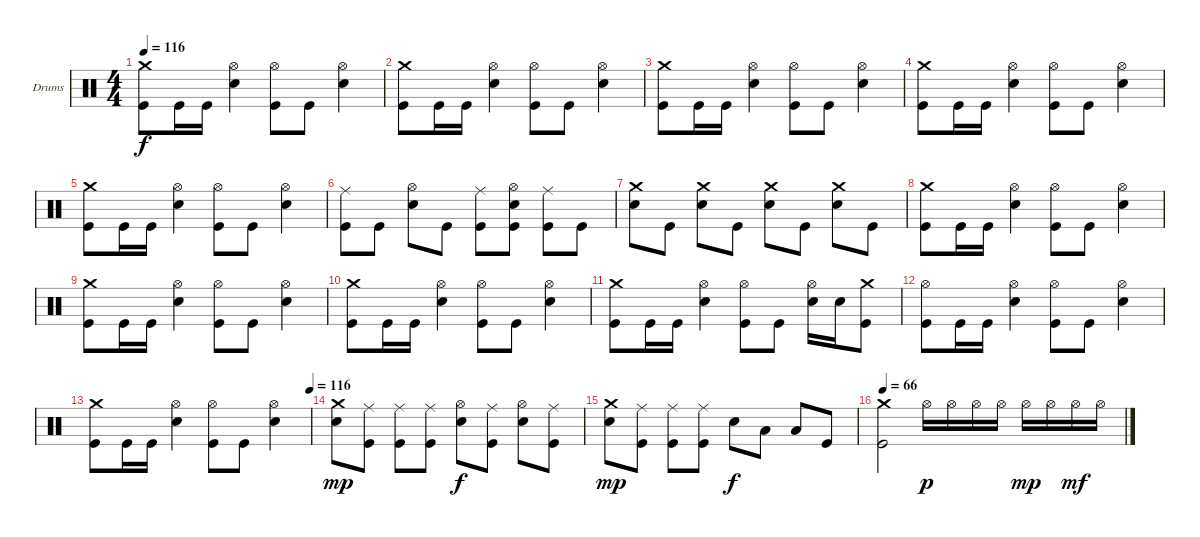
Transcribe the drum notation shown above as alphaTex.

\defaultSystemsLayout 4
\bracketExtendMode nobrackets
\firstSystemTrackNameOrientation horizontal
\otherSystemsTrackNameOrientation horizontal
\track ("Dave Abbruzzese" "Drums") {solo instrument percussion}
\staff {score}
\articulation defaults
\ts (4 4)
\tempo 116
\clef neutral
\ks c
("Crash medium (hit)" "Kick (hit)").8{dy f} "Kick (hit)".16 "Kick (hit)".16 ("Hi-Hat (open)" "Snare (hit) 2").4 ("Hi-Hat (open)" "Kick (hit)").8 "Kick (hit)".8 ("Hi-Hat (open)" "Snare (hit) 2").4 |
("Crash medium (hit)" "Kick (hit)").8 "Kick (hit)".16 "Kick (hit)".16 ("Hi-Hat (open)" "Snare (hit) 2").4 ("Hi-Hat (open)" "Kick (hit)").8 "Kick (hit)".8 ("Hi-Hat (open)" "Snare (hit) 2").4 |
("Crash medium (hit)" "Kick (hit)").8 "Kick (hit)".16 "Kick (hit)".16 ("Hi-Hat (open)" "Snare (hit) 2").4 ("Hi-Hat (open)" "Kick (hit)").8 "Kick (hit)".8 ("Hi-Hat (open)" "Snare (hit) 2").4 |
("Crash medium (hit)" "Kick (hit)").8 "Kick (hit)".16 "Kick (hit)".16 ("Hi-Hat (open)" "Snare (hit) 2").4 ("Hi-Hat (open)" "Kick (hit)").8 "Kick (hit)".8 ("Hi-Hat (open)" "Snare (hit) 2").4 |
("Crash medium (hit)" "Kick (hit)").8 "Kick (hit)".16 "Kick (hit)".16 ("Hi-Hat (open)" "Snare (hit) 2").4 ("Hi-Hat (open)" "Kick (hit)").8 "Kick (hit)".8 ("Hi-Hat (open)" "Snare (hit) 2").4 |
("Ride (middle)" "Kick (hit)").8 "Kick (hit)".8 ("Hi-Hat (open)" "Snare (hit) 2").8 "Kick (hit)".8 ("Ride (middle)" "Kick (hit)").8 ("Hi-Hat (open)" "Snare (hit) 2" "Kick (hit)").8 ("Ride (middle)" "Kick (hit)").8 "Kick (hit)".8 |
("Crash medium (hit)" "Snare (hit) 2").8 "Kick (hit)".8 ("Crash medium (hit)" "Snare (hit) 2").8 "Kick (hit)".8 ("Crash medium (hit)" "Snare (hit) 2").8 "Kick (hit)".8 ("Crash medium (hit)" "Snare (hit) 2").8 "Kick (hit)".8 |
("Crash medium (hit)" "Kick (hit)").8 "Kick (hit)".16 "Kick (hit)".16 ("Hi-Hat (open)" "Snare (hit) 2").4 ("Hi-Hat (open)" "Kick (hit)").8 "Kick (hit)".8 ("Hi-Hat (open)" "Snare (hit) 2").4 |
("Crash medium (hit)" "Kick (hit)").8 "Kick (hit)".16 "Kick (hit)".16 ("Hi-Hat (open)" "Snare (hit) 2").4 ("Hi-Hat (open)" "Kick (hit)").8 "Kick (hit)".8 ("Hi-Hat (open)" "Snare (hit) 2").4 |
("Crash medium (hit)" "Kick (hit)").8 "Kick (hit)".16 "Kick (hit)".16 ("Hi-Hat (open)" "Snare (hit) 2").4 ("Hi-Hat (open)" "Kick (hit)").8 "Kick (hit)".8 ("Hi-Hat (open)" "Snare (hit) 2").4 |
("Crash medium (hit)" "Kick (hit)").8 "Kick (hit)".16 "Kick (hit)".16 ("Hi-Hat (open)" "Snare (hit) 2").4 ("Hi-Hat (open)" "Kick (hit)").8 "Kick (hit)".8 ("Hi-Hat (open)" "Snare (hit) 2").16 "Snare (hit) 2".16 ("Crash medium (hit)" "Kick (hit)").8 |
("Hi-Hat (open)" "Kick (hit)").8 "Kick (hit)".16 "Kick (hit)".16 ("Hi-Hat (open)" "Snare (hit) 2").4 ("Hi-Hat (open)" "Kick (hit)").8 "Kick (hit)".8 ("Hi-Hat (open)" "Snare (hit) 2").4 |
\tempo (116 1)
("Crash medium (hit)" "Kick (hit)").8 "Kick (hit)".16 "Kick (hit)".16 ("Hi-Hat (open)" "Snare (hit) 2").4 ("Hi-Hat (open)" "Kick (hit)").8 "Kick (hit)".8 ("Hi-Hat (open)" "Snare (hit) 2").4 |
("Crash medium (hit)" "Snare (hit) 2").8{dy mp} ("Ride (middle)" "Kick (hit)").8 ("Ride (middle)" "Kick (hit)").8 ("Ride (middle)" "Kick (hit)").8 ("Hi-Hat (open)" "Snare (hit) 2").8{dy f} ("Ride (middle)" "Kick (hit)").8 ("Hi-Hat (open)" "Snare (hit) 2").8 ("Ride (middle)" "Kick (hit)").8 |
("Crash medium (hit)" "Snare (hit) 2").8{dy mp} ("Ride (middle)" "Kick (hit)").8 ("Ride (middle)" "Kick (hit)").8 ("Ride (middle)" "Kick (hit)").8 "Snare (hit) 2".8{dy f} "Low Tom (hit)".8 "Low Tom (hit)".8 "Kick (hit)".8 |
\tempo 66
("Crash medium (hit)" "Kick (hit)").2 "Hi-Hat (open)".16{dy p} "Hi-Hat (open)".16 "Hi-Hat (open)".16 "Hi-Hat (open)".16 "Hi-Hat (open)".16{dy mp} "Hi-Hat (open)".16 "Hi-Hat (open)".16{dy mf} "Hi-Hat (open)".16
